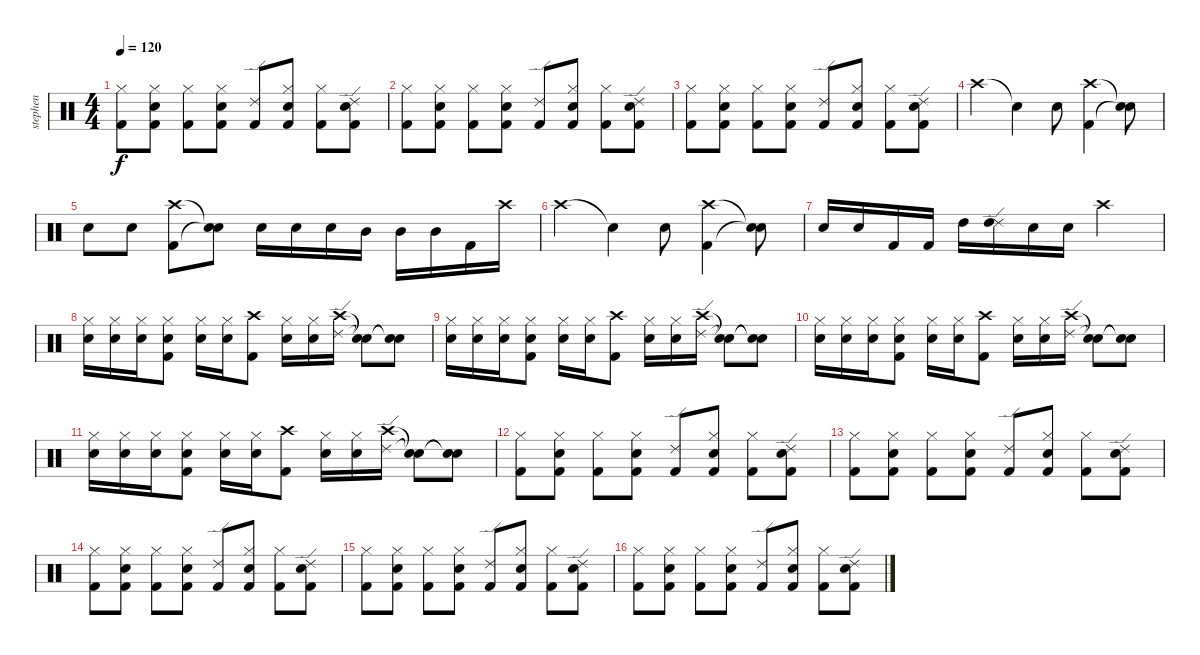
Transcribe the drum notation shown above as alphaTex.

\track ("stephen" "stephen") {instrument percussion}
\staff {score}
\articulation defaults
\ts (4 4)
\tempo 120
\clef neutral
\ks c
("Kick (hit) 2" "Hi-Hat (closed)").8{dy f} ("Kick (hit) 2" "Snare (hit) 2" "Hi-Hat (closed)").8 ("Kick (hit) 2" "Hi-Hat (closed)").8 ("Snare (hit) 2" "Kick (hit) 2" "Hi-Hat (closed)").8 ("Kick (hit) 2" "Ride (edge) 2").8 ("Snare (hit) 2" "Kick (hit) 2" "Hi-Hat (closed)").8 ("Kick (hit) 2" "Hi-Hat (closed)").8 ("Snare (hit) 2" "Kick (hit) 2" "Ride (edge) 2").8 |
("Kick (hit) 2" "Hi-Hat (closed)").8 ("Kick (hit) 2" "Snare (hit) 2" "Hi-Hat (closed)").8 ("Kick (hit) 2" "Hi-Hat (closed)").8 ("Snare (hit) 2" "Kick (hit) 2" "Hi-Hat (closed)").8 ("Kick (hit) 2" "Ride (edge) 2").8 ("Snare (hit) 2" "Kick (hit) 2" "Hi-Hat (closed)").8 ("Kick (hit) 2" "Hi-Hat (closed)").8 ("Snare (hit) 2" "Kick (hit) 2" "Ride (edge) 2").8 |
("Kick (hit) 2" "Hi-Hat (closed)").8 ("Kick (hit) 2" "Snare (hit) 2" "Hi-Hat (closed)").8 ("Kick (hit) 2" "Hi-Hat (closed)").8 ("Snare (hit) 2" "Kick (hit) 2" "Hi-Hat (closed)").8 ("Kick (hit) 2" "Ride (edge) 2").8 ("Snare (hit) 2" "Kick (hit) 2" "Hi-Hat (closed)").8 ("Kick (hit) 2" "Hi-Hat (closed)").8 ("Snare (hit) 2" "Kick (hit) 2" "Ride (edge) 2").8 |
"Crash high (hit)".4 "Snare (hit) 2"{t}.4 "Snare (hit) 2".8 ("Crash high (hit)" "Kick (hit) 2").4 ("Snare (hit)"{t} "Snare (hit)"{t}).8 |
"Snare (hit) 2".8 "Snare (hit) 2".8 ("Kick (hit) 2" "Crash high (hit)").8 ("Snare (hit)"{t} "Snare (hit)"{t}).8 "Snare (hit) 2".16 "Snare (hit) 2".16 "Snare (hit) 2".16 "Mid Tom (hit)".16 "Mid Tom (hit)".16 "Mid Tom (hit)".16 "Kick (hit) 2".16 "Crash high (hit)".16 |
"Crash high (hit)".4 "Snare (hit) 2"{t}.4 "Snare (hit) 2".8 ("Crash high (hit)" "Kick (hit) 2").4 ("Snare (hit)"{t} "Snare (hit)"{t}).8 |
"Snare (hit) 2".16 "Snare (hit) 2".16 "Kick (hit) 2".16 "Kick (hit) 2".16 "High Tom (hit)".16 ("Ride (edge) 2" "High Tom (hit)").16 "Snare (hit) 2".16 "Snare (hit) 2".16 "Crash high (hit)".2 |
("Hi-Hat (closed)" "Snare (hit) 2").16 ("Hi-Hat (closed)" "Snare (hit) 2").16 ("Hi-Hat (closed)" "Snare (hit) 2").16 ("Hi-Hat (closed)" "Snare (hit) 2" "Kick (hit) 2").8 ("Hi-Hat (closed)" "Snare (hit) 2").16 ("Hi-Hat (closed)" "Snare (hit) 2").16 ("Kick (hit) 2" "Crash high (hit)").8 ("Hi-Hat (closed)" "Snare (hit) 2").16 ("Hi-Hat (closed)" "Snare (hit) 2").16 ("Crash high (hit)" "Ride (edge) 2").16 ("Snare (hit)"{t} "Snare (hit)"{t}).8 ("Snare (hit)"{t} "Snare (hit)"{t}).8 |
("Hi-Hat (closed)" "Snare (hit) 2").16 ("Hi-Hat (closed)" "Snare (hit) 2").16 ("Hi-Hat (closed)" "Snare (hit) 2").16 ("Hi-Hat (closed)" "Snare (hit) 2" "Kick (hit) 2").8 ("Hi-Hat (closed)" "Snare (hit) 2").16 ("Hi-Hat (closed)" "Snare (hit) 2").16 ("Kick (hit) 2" "Crash high (hit)").8 ("Hi-Hat (closed)" "Snare (hit) 2").16 ("Hi-Hat (closed)" "Snare (hit) 2").16 ("Crash high (hit)" "Ride (edge) 2").16 ("Snare (hit)"{t} "Snare (hit)"{t}).8 ("Snare (hit)"{t} "Snare (hit)"{t}).8 |
("Hi-Hat (closed)" "Snare (hit) 2").16 ("Hi-Hat (closed)" "Snare (hit) 2").16 ("Hi-Hat (closed)" "Snare (hit) 2").16 ("Hi-Hat (closed)" "Snare (hit) 2" "Kick (hit) 2").8 ("Hi-Hat (closed)" "Snare (hit) 2").16 ("Hi-Hat (closed)" "Snare (hit) 2").16 ("Kick (hit) 2" "Crash high (hit)").8 ("Hi-Hat (closed)" "Snare (hit) 2").16 ("Hi-Hat (closed)" "Snare (hit) 2").16 ("Crash high (hit)" "Ride (edge) 2").16 ("Snare (hit)"{t} "Snare (hit)"{t}).8 ("Snare (hit)"{t} "Snare (hit)"{t}).8 |
("Hi-Hat (closed)" "Snare (hit) 2").16 ("Hi-Hat (closed)" "Snare (hit) 2").16 ("Hi-Hat (closed)" "Snare (hit) 2").16 ("Hi-Hat (closed)" "Snare (hit) 2" "Kick (hit) 2").8 ("Hi-Hat (closed)" "Snare (hit) 2").16 ("Hi-Hat (closed)" "Snare (hit) 2").16 ("Kick (hit) 2" "Crash high (hit)").8 ("Hi-Hat (closed)" "Snare (hit) 2").16 ("Hi-Hat (closed)" "Snare (hit) 2").16 ("Crash high (hit)" "Ride (edge) 2").16 ("Snare (hit)"{t} "Snare (hit)"{t}).8 ("Snare (hit)"{t} "Snare (hit)"{t}).8 |
("Kick (hit) 2" "Hi-Hat (closed)").8 ("Kick (hit) 2" "Snare (hit) 2" "Hi-Hat (closed)").8 ("Kick (hit) 2" "Hi-Hat (closed)").8 ("Snare (hit) 2" "Kick (hit) 2" "Hi-Hat (closed)").8 ("Kick (hit) 2" "Ride (edge) 2").8 ("Snare (hit) 2" "Kick (hit) 2" "Hi-Hat (closed)").8 ("Kick (hit) 2" "Hi-Hat (closed)").8 ("Snare (hit) 2" "Kick (hit) 2" "Ride (edge) 2").8 |
("Kick (hit) 2" "Hi-Hat (closed)").8 ("Kick (hit) 2" "Snare (hit) 2" "Hi-Hat (closed)").8 ("Kick (hit) 2" "Hi-Hat (closed)").8 ("Snare (hit) 2" "Kick (hit) 2" "Hi-Hat (closed)").8 ("Kick (hit) 2" "Ride (edge) 2").8 ("Snare (hit) 2" "Kick (hit) 2" "Hi-Hat (closed)").8 ("Kick (hit) 2" "Hi-Hat (closed)").8 ("Snare (hit) 2" "Kick (hit) 2" "Ride (edge) 2").8 |
("Kick (hit) 2" "Hi-Hat (closed)").8 ("Kick (hit) 2" "Snare (hit) 2" "Hi-Hat (closed)").8 ("Kick (hit) 2" "Hi-Hat (closed)").8 ("Snare (hit) 2" "Kick (hit) 2" "Hi-Hat (closed)").8 ("Kick (hit) 2" "Ride (edge) 2").8 ("Snare (hit) 2" "Kick (hit) 2" "Hi-Hat (closed)").8 ("Kick (hit) 2" "Hi-Hat (closed)").8 ("Snare (hit) 2" "Kick (hit) 2" "Ride (edge) 2").8 |
("Kick (hit) 2" "Hi-Hat (closed)").8 ("Kick (hit) 2" "Snare (hit) 2" "Hi-Hat (closed)").8 ("Kick (hit) 2" "Hi-Hat (closed)").8 ("Snare (hit) 2" "Kick (hit) 2" "Hi-Hat (closed)").8 ("Kick (hit) 2" "Ride (edge) 2").8 ("Snare (hit) 2" "Kick (hit) 2" "Hi-Hat (closed)").8 ("Kick (hit) 2" "Hi-Hat (closed)").8 ("Snare (hit) 2" "Kick (hit) 2" "Ride (edge) 2").8 |
("Kick (hit) 2" "Hi-Hat (closed)").8 ("Kick (hit) 2" "Snare (hit) 2" "Hi-Hat (closed)").8 ("Kick (hit) 2" "Hi-Hat (closed)").8 ("Snare (hit) 2" "Kick (hit) 2" "Hi-Hat (closed)").8 ("Kick (hit) 2" "Ride (edge) 2").8 ("Snare (hit) 2" "Kick (hit) 2" "Hi-Hat (closed)").8 ("Kick (hit) 2" "Hi-Hat (closed)").8 ("Snare (hit) 2" "Kick (hit) 2" "Ride (edge) 2").8
